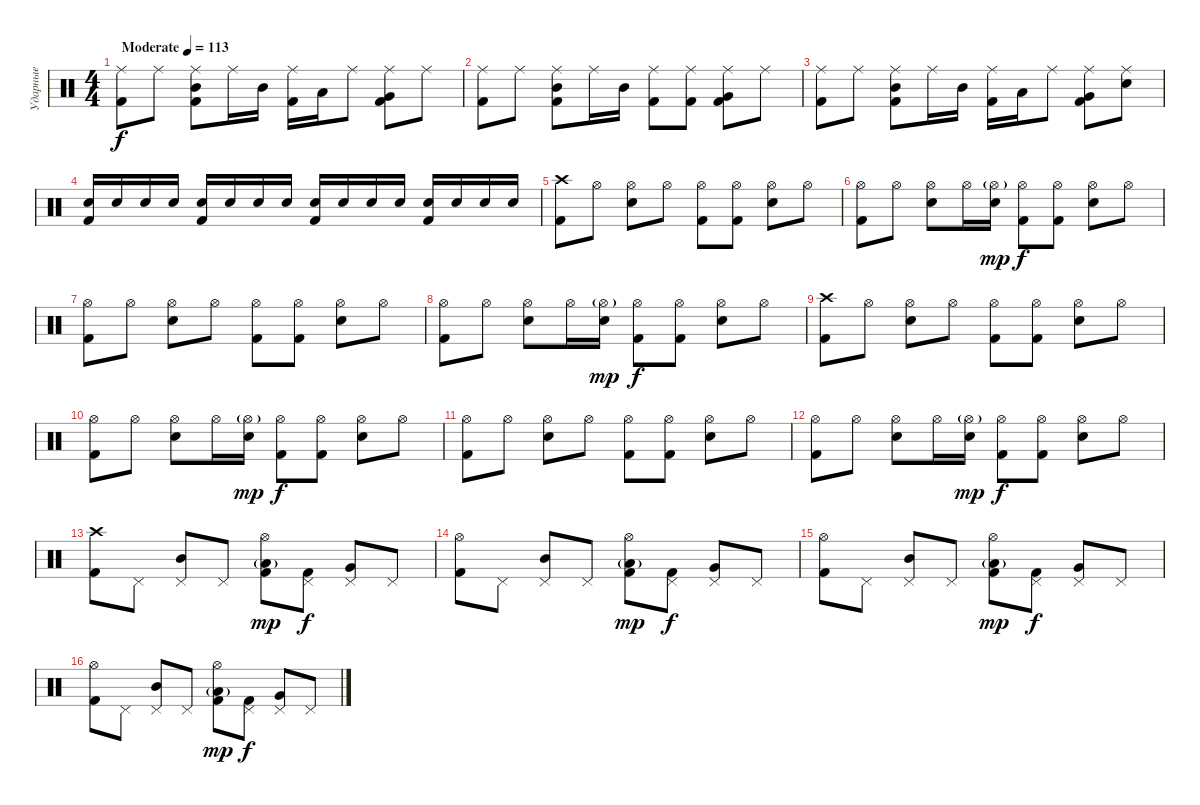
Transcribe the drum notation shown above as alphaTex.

\track ("Ударные" "Ударные") {instrument percussion}
\staff {score}
\articulation defaults
\ts (4 4)
\tempo (113 "Moderate")
\clef neutral
\ks c
("Ride (middle)" "Kick (hit) 2").8{dy f} "Ride (middle)".8 ("Ride (middle)" "Mid Tom (hit)" "Kick (hit) 2").8 "Ride (middle)".16 "Mid Tom (hit)".16 ("Ride (middle)" "Kick (hit) 2").16 "Low Tom (hit)".16 "Ride (middle)".8 ("Ride (middle)" "Very Low Tom (hit)" "Kick (hit) 2").8 "Ride (middle)".8 |
("Ride (middle)" "Kick (hit) 2").8 "Ride (middle)".8 ("Ride (middle)" "Mid Tom (hit)" "Kick (hit) 2").8 "Ride (middle)".16 "Mid Tom (hit)".16 ("Ride (middle)" "Kick (hit) 2").8 ("Ride (middle)" "Kick (hit) 2").8 ("Ride (middle)" "Very Low Tom (hit)" "Kick (hit) 2").8 "Ride (middle)".8 |
("Ride (middle)" "Kick (hit) 2").8 "Ride (middle)".8 ("Ride (middle)" "Mid Tom (hit)" "Kick (hit) 2").8 "Ride (middle)".16 "Mid Tom (hit)".16 ("Ride (middle)" "Kick (hit) 2").16 "Low Tom (hit)".16 "Ride (middle)".8 ("Ride (middle)" "Very Low Tom (hit)" "Kick (hit) 2").8 ("Ride (middle)" "Snare (hit) 2").8 |
("Snare (hit) 2" "Kick (hit) 2").16 "Snare (hit) 2".16 "Snare (hit) 2".16 "Snare (hit) 2".16 ("Snare (hit) 2" "Kick (hit) 2").16 "Snare (hit) 2".16 "Snare (hit) 2".16 "Snare (hit) 2".16 ("Snare (hit) 2" "Kick (hit) 2").16 "Snare (hit) 2".16 "Snare (hit) 2".16 "Snare (hit) 2".16 ("Snare (hit) 2" "Kick (hit) 2").16 "Snare (hit) 2".16 "Snare (hit) 2".16 "Snare (hit) 2".16 |
("Crash high (hit)" "Kick (hit) 2").8 "Hi-Hat (open)".8 ("Hi-Hat (open)" "Snare (hit) 2").8 "Hi-Hat (open)".8 ("Hi-Hat (open)" "Kick (hit) 2").8 ("Hi-Hat (open)" "Kick (hit) 2").8 ("Hi-Hat (open)" "Snare (hit) 2").8 "Hi-Hat (open)".8 |
("Hi-Hat (open)" "Kick (hit) 2").8 "Hi-Hat (open)".8 ("Hi-Hat (open)" "Snare (hit) 2").8 "Hi-Hat (open)".16 ("Hi-Hat (open)"{g} "Snare (hit) 2").16{dy mp} ("Hi-Hat (open)" "Kick (hit) 2").8{dy f} ("Hi-Hat (open)" "Kick (hit) 2").8 ("Hi-Hat (open)" "Snare (hit) 2").8 "Hi-Hat (open)".8 |
("Hi-Hat (open)" "Kick (hit) 2").8 "Hi-Hat (open)".8 ("Hi-Hat (open)" "Snare (hit) 2").8 "Hi-Hat (open)".8 ("Hi-Hat (open)" "Kick (hit) 2").8 ("Hi-Hat (open)" "Kick (hit) 2").8 ("Hi-Hat (open)" "Snare (hit) 2").8 "Hi-Hat (open)".8 |
("Hi-Hat (open)" "Kick (hit) 2").8 "Hi-Hat (open)".8 ("Hi-Hat (open)" "Snare (hit) 2").8 "Hi-Hat (open)".16 ("Hi-Hat (open)"{g} "Snare (hit) 2").16{dy mp} ("Hi-Hat (open)" "Kick (hit) 2").8{dy f} ("Hi-Hat (open)" "Kick (hit) 2").8 ("Hi-Hat (open)" "Snare (hit) 2").8 "Hi-Hat (open)".8 |
("Crash high (hit)" "Kick (hit) 2").8 "Hi-Hat (open)".8 ("Hi-Hat (open)" "Snare (hit) 2").8 "Hi-Hat (open)".8 ("Hi-Hat (open)" "Kick (hit) 2").8 ("Hi-Hat (open)" "Kick (hit) 2").8 ("Hi-Hat (open)" "Snare (hit) 2").8 "Hi-Hat (open)".8 |
("Hi-Hat (open)" "Kick (hit) 2").8 "Hi-Hat (open)".8 ("Hi-Hat (open)" "Snare (hit) 2").8 "Hi-Hat (open)".16 ("Hi-Hat (open)"{g} "Snare (hit) 2").16{dy mp} ("Hi-Hat (open)" "Kick (hit) 2").8{dy f} ("Hi-Hat (open)" "Kick (hit) 2").8 ("Hi-Hat (open)" "Snare (hit) 2").8 "Hi-Hat (open)".8 |
("Hi-Hat (open)" "Kick (hit) 2").8 "Hi-Hat (open)".8 ("Hi-Hat (open)" "Snare (hit) 2").8 "Hi-Hat (open)".8 ("Hi-Hat (open)" "Kick (hit) 2").8 ("Hi-Hat (open)" "Kick (hit) 2").8 ("Hi-Hat (open)" "Snare (hit) 2").8 "Hi-Hat (open)".8 |
("Hi-Hat (open)" "Kick (hit) 2").8 "Hi-Hat (open)".8 ("Hi-Hat (open)" "Snare (hit) 2").8 "Hi-Hat (open)".16 ("Hi-Hat (open)"{g} "Snare (hit) 2").16{dy mp} ("Hi-Hat (open)" "Kick (hit) 2").8{dy f} ("Hi-Hat (open)" "Kick (hit) 2").8 ("Hi-Hat (open)" "Snare (hit) 2").8 "Hi-Hat (open)".8 |
("Crash high (hit)" "Kick (hit) 2").8 "Pedal Hi-Hat (hit)".8 ("Pedal Hi-Hat (hit)" "Mid Tom (hit)").8 "Pedal Hi-Hat (hit)".8 ("Hi-Hat (open)" "Low Tom (hit)"{g} "Kick (hit) 2").8{dy mp} ("Pedal Hi-Hat (hit)" "Kick (hit) 2").8{dy f} ("Pedal Hi-Hat (hit)" "Very Low Tom (hit)").8 "Pedal Hi-Hat (hit)".8 |
("Hi-Hat (open)" "Kick (hit) 2").8 "Pedal Hi-Hat (hit)".8 ("Pedal Hi-Hat (hit)" "Mid Tom (hit)").8 "Pedal Hi-Hat (hit)".8 ("Hi-Hat (open)" "Low Tom (hit)"{g} "Kick (hit) 2").8{dy mp} ("Pedal Hi-Hat (hit)" "Kick (hit) 2").8{dy f} ("Pedal Hi-Hat (hit)" "Very Low Tom (hit)").8 "Pedal Hi-Hat (hit)".8 |
("Hi-Hat (open)" "Kick (hit) 2").8 "Pedal Hi-Hat (hit)".8 ("Pedal Hi-Hat (hit)" "Mid Tom (hit)").8 "Pedal Hi-Hat (hit)".8 ("Hi-Hat (open)" "Low Tom (hit)"{g} "Kick (hit) 2").8{dy mp} ("Pedal Hi-Hat (hit)" "Kick (hit) 2").8{dy f} ("Pedal Hi-Hat (hit)" "Very Low Tom (hit)").8 "Pedal Hi-Hat (hit)".8 |
("Hi-Hat (open)" "Kick (hit) 2").8 "Pedal Hi-Hat (hit)".8 ("Pedal Hi-Hat (hit)" "Mid Tom (hit)").8 "Pedal Hi-Hat (hit)".8 ("Hi-Hat (open)" "Low Tom (hit)"{g} "Kick (hit) 2").8{dy mp} ("Pedal Hi-Hat (hit)" "Kick (hit) 2").8{dy f} ("Pedal Hi-Hat (hit)" "Very Low Tom (hit)").8 "Pedal Hi-Hat (hit)".8
